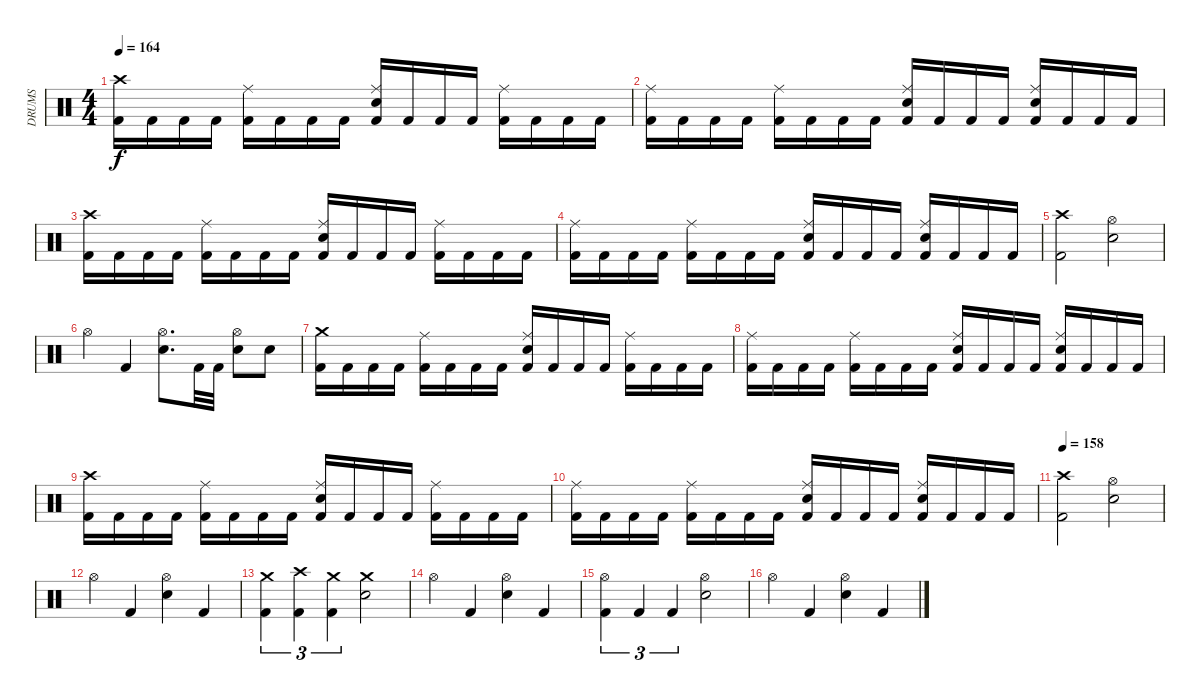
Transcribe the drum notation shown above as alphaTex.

\track ("DRUMS" "DRUMS") {instrument percussion}
\staff {score}
\articulation defaults
\ts (4 4)
\tempo 164
\clef neutral
\ks c
("Crash high (hit)" "Kick (hit) 2").16{dy f} "Kick (hit) 2".16 "Kick (hit) 2".16 "Kick (hit) 2".16 ("Ride (middle)" "Kick (hit) 2").16 "Kick (hit) 2".16 "Kick (hit) 2".16 "Kick (hit) 2".16 ("Ride (middle)" "Snare (hit) 2" "Kick (hit) 2").16 "Kick (hit) 2".16 "Kick (hit) 2".16 "Kick (hit) 2".16 ("Ride (middle)" "Kick (hit) 2").16 "Kick (hit) 2".16 "Kick (hit) 2".16 "Kick (hit) 2".16 |
("Ride (middle)" "Kick (hit) 2").16 "Kick (hit) 2".16 "Kick (hit) 2".16 "Kick (hit) 2".16 ("Ride (middle)" "Kick (hit) 2").16 "Kick (hit) 2".16 "Kick (hit) 2".16 "Kick (hit) 2".16 ("Ride (middle)" "Snare (hit) 2" "Kick (hit) 2").16 "Kick (hit) 2".16 "Kick (hit) 2".16 "Kick (hit) 2".16 ("Ride (middle)" "Snare (hit) 2" "Kick (hit) 2").16 "Kick (hit) 2".16 "Kick (hit) 2".16 "Kick (hit) 2".16 |
("Crash high (hit)" "Kick (hit) 2").16 "Kick (hit) 2".16 "Kick (hit) 2".16 "Kick (hit) 2".16 ("Ride (middle)" "Kick (hit) 2").16 "Kick (hit) 2".16 "Kick (hit) 2".16 "Kick (hit) 2".16 ("Ride (middle)" "Snare (hit) 2" "Kick (hit) 2").16 "Kick (hit) 2".16 "Kick (hit) 2".16 "Kick (hit) 2".16 ("Ride (middle)" "Kick (hit) 2").16 "Kick (hit) 2".16 "Kick (hit) 2".16 "Kick (hit) 2".16 |
("Ride (middle)" "Kick (hit) 2").16 "Kick (hit) 2".16 "Kick (hit) 2".16 "Kick (hit) 2".16 ("Ride (middle)" "Kick (hit) 2").16 "Kick (hit) 2".16 "Kick (hit) 2".16 "Kick (hit) 2".16 ("Ride (middle)" "Snare (hit) 2" "Kick (hit) 2").16 "Kick (hit) 2".16 "Kick (hit) 2".16 "Kick (hit) 2".16 ("Ride (middle)" "Snare (hit) 2" "Kick (hit) 2").16 "Kick (hit) 2".16 "Kick (hit) 2".16 "Kick (hit) 2".16 |
("Crash high (hit)" "Kick (hit) 2").2 ("Hi-Hat (open)" "Snare (hit) 2").2 |
"Hi-Hat (open)".4 "Kick (hit) 2".4 ("Hi-Hat (open)" "Snare (hit) 2").8{d} "Kick (hit) 2".32 "Kick (hit) 2".32 ("Hi-Hat (open)" "Snare (hit) 2").8 "Snare (hit) 2".8 |
("Crash medium (hit)" "Kick (hit) 2").16 "Kick (hit) 2".16 "Kick (hit) 2".16 "Kick (hit) 2".16 ("Ride (middle)" "Kick (hit) 2").16 "Kick (hit) 2".16 "Kick (hit) 2".16 "Kick (hit) 2".16 ("Ride (middle)" "Snare (hit) 2" "Kick (hit) 2").16 "Kick (hit) 2".16 "Kick (hit) 2".16 "Kick (hit) 2".16 ("Ride (middle)" "Kick (hit) 2").16 "Kick (hit) 2".16 "Kick (hit) 2".16 "Kick (hit) 2".16 |
("Ride (middle)" "Kick (hit) 2").16 "Kick (hit) 2".16 "Kick (hit) 2".16 "Kick (hit) 2".16 ("Ride (middle)" "Kick (hit) 2").16 "Kick (hit) 2".16 "Kick (hit) 2".16 "Kick (hit) 2".16 ("Ride (middle)" "Snare (hit) 2" "Kick (hit) 2").16 "Kick (hit) 2".16 "Kick (hit) 2".16 "Kick (hit) 2".16 ("Ride (middle)" "Snare (hit) 2" "Kick (hit) 2").16 "Kick (hit) 2".16 "Kick (hit) 2".16 "Kick (hit) 2".16 |
("Crash high (hit)" "Kick (hit) 2").16 "Kick (hit) 2".16 "Kick (hit) 2".16 "Kick (hit) 2".16 ("Ride (middle)" "Kick (hit) 2").16 "Kick (hit) 2".16 "Kick (hit) 2".16 "Kick (hit) 2".16 ("Ride (middle)" "Snare (hit) 2" "Kick (hit) 2").16 "Kick (hit) 2".16 "Kick (hit) 2".16 "Kick (hit) 2".16 ("Ride (middle)" "Kick (hit) 2").16 "Kick (hit) 2".16 "Kick (hit) 2".16 "Kick (hit) 2".16 |
("Ride (middle)" "Kick (hit) 2").16 "Kick (hit) 2".16 "Kick (hit) 2".16 "Kick (hit) 2".16 ("Ride (middle)" "Kick (hit) 2").16 "Kick (hit) 2".16 "Kick (hit) 2".16 "Kick (hit) 2".16 ("Ride (middle)" "Snare (hit) 2" "Kick (hit) 2").16 "Kick (hit) 2".16 "Kick (hit) 2".16 "Kick (hit) 2".16 ("Ride (middle)" "Snare (hit) 2" "Kick (hit) 2").16 "Kick (hit) 2".16 "Kick (hit) 2".16 "Kick (hit) 2".16 |
\tempo 158
("Crash high (hit)" "Kick (hit) 2").2 ("Hi-Hat (open)" "Snare (hit) 2").2 |
"Hi-Hat (open)".4 "Kick (hit) 2".4 ("Hi-Hat (open)" "Snare (hit) 2").4 "Kick (hit) 2".4 |
("Crash medium (hit)" "Kick (hit) 2").4{tu (3 2)} ("Crash high (hit)" "Kick (hit) 2").4{tu (3 2)} ("Crash medium (hit)" "Kick (hit) 2").4{tu (3 2)} ("Crash medium (hit)" "Snare (hit) 2").2 |
"Hi-Hat (open)".4 "Kick (hit) 2".4 ("Hi-Hat (open)" "Snare (hit) 2").4 "Kick (hit) 2".4 |
("Hi-Hat (open)" "Kick (hit) 2").4{tu (3 2)} "Kick (hit) 2".4{tu (3 2)} "Kick (hit) 2".4{tu (3 2)} ("Hi-Hat (open)" "Snare (hit) 2").2 |
"Hi-Hat (open)".4 "Kick (hit) 2".4 ("Hi-Hat (open)" "Snare (hit) 2").4 "Kick (hit) 2".4
